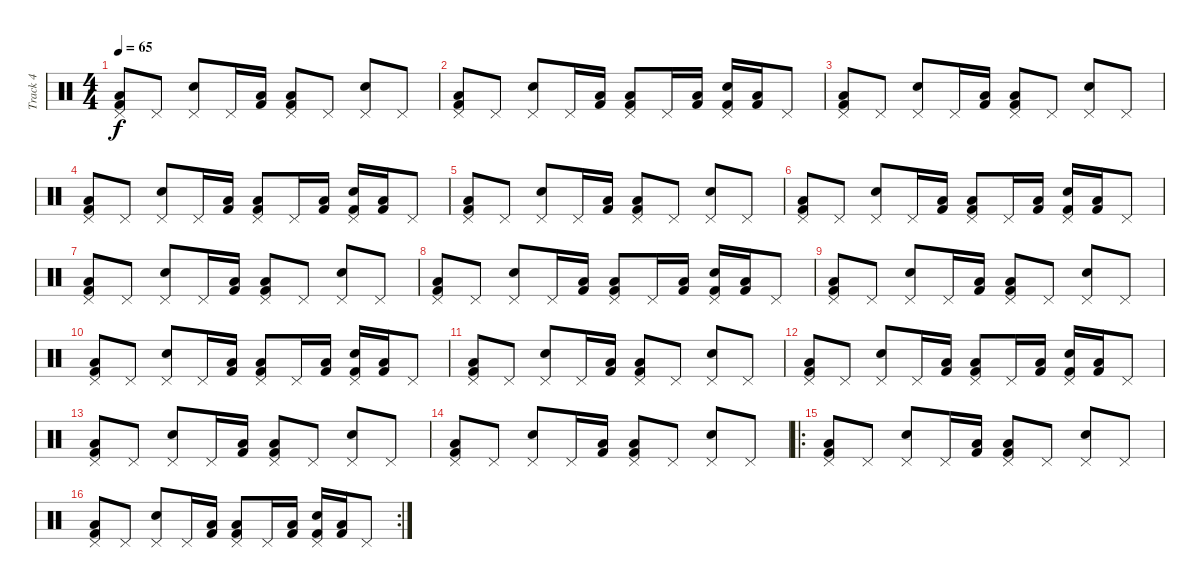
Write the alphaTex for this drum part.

\track ("Track 4" "Track 4") {instrument percussion}
\staff {score}
\articulation defaults
\ts (4 4)
\tempo 65
\clef neutral
\ks c
("Pedal Hi-Hat (hit)" "Low Floor Tom (hit)" "Kick (hit) 2").8{dy f} "Pedal Hi-Hat (hit)".8 ("Pedal Hi-Hat (hit)" "Electric Snare (hit)").8 "Pedal Hi-Hat (hit)".16 ("Low Floor Tom (hit)" "Kick (hit) 2").16 ("Pedal Hi-Hat (hit)" "Low Floor Tom (hit)" "Kick (hit) 2").8 "Pedal Hi-Hat (hit)".8 ("Pedal Hi-Hat (hit)" "Electric Snare (hit)").8 "Pedal Hi-Hat (hit)".8 |
("Pedal Hi-Hat (hit)" "Low Floor Tom (hit)" "Kick (hit) 2").8 "Pedal Hi-Hat (hit)".8 ("Pedal Hi-Hat (hit)" "Electric Snare (hit)").8 "Pedal Hi-Hat (hit)".16 ("Low Floor Tom (hit)" "Kick (hit) 2").16 ("Pedal Hi-Hat (hit)" "Low Floor Tom (hit)" "Kick (hit) 2").8 "Pedal Hi-Hat (hit)".16 ("Low Floor Tom (hit)" "Kick (hit) 2").16 ("Pedal Hi-Hat (hit)" "Electric Snare (hit)" "Kick (hit) 2").16 ("Low Floor Tom (hit)" "Kick (hit) 2").16 "Pedal Hi-Hat (hit)".8 |
("Pedal Hi-Hat (hit)" "Low Floor Tom (hit)" "Kick (hit) 2").8 "Pedal Hi-Hat (hit)".8 ("Pedal Hi-Hat (hit)" "Electric Snare (hit)").8 "Pedal Hi-Hat (hit)".16 ("Low Floor Tom (hit)" "Kick (hit) 2").16 ("Pedal Hi-Hat (hit)" "Low Floor Tom (hit)" "Kick (hit) 2").8 "Pedal Hi-Hat (hit)".8 ("Pedal Hi-Hat (hit)" "Electric Snare (hit)").8 "Pedal Hi-Hat (hit)".8 |
("Pedal Hi-Hat (hit)" "Low Floor Tom (hit)" "Kick (hit) 2").8 "Pedal Hi-Hat (hit)".8 ("Pedal Hi-Hat (hit)" "Electric Snare (hit)").8 "Pedal Hi-Hat (hit)".16 ("Low Floor Tom (hit)" "Kick (hit) 2").16 ("Pedal Hi-Hat (hit)" "Low Floor Tom (hit)" "Kick (hit) 2").8 "Pedal Hi-Hat (hit)".16 ("Low Floor Tom (hit)" "Kick (hit) 2").16 ("Pedal Hi-Hat (hit)" "Electric Snare (hit)" "Kick (hit) 2").16 ("Low Floor Tom (hit)" "Kick (hit) 2").16 "Pedal Hi-Hat (hit)".8 |
("Pedal Hi-Hat (hit)" "Low Floor Tom (hit)" "Kick (hit) 2").8 "Pedal Hi-Hat (hit)".8 ("Pedal Hi-Hat (hit)" "Electric Snare (hit)").8 "Pedal Hi-Hat (hit)".16 ("Low Floor Tom (hit)" "Kick (hit) 2").16 ("Pedal Hi-Hat (hit)" "Low Floor Tom (hit)" "Kick (hit) 2").8 "Pedal Hi-Hat (hit)".8 ("Pedal Hi-Hat (hit)" "Electric Snare (hit)").8 "Pedal Hi-Hat (hit)".8 |
("Pedal Hi-Hat (hit)" "Low Floor Tom (hit)" "Kick (hit) 2").8 "Pedal Hi-Hat (hit)".8 ("Pedal Hi-Hat (hit)" "Electric Snare (hit)").8 "Pedal Hi-Hat (hit)".16 ("Low Floor Tom (hit)" "Kick (hit) 2").16 ("Pedal Hi-Hat (hit)" "Low Floor Tom (hit)" "Kick (hit) 2").8 "Pedal Hi-Hat (hit)".16 ("Low Floor Tom (hit)" "Kick (hit) 2").16 ("Pedal Hi-Hat (hit)" "Electric Snare (hit)" "Kick (hit) 2").16 ("Low Floor Tom (hit)" "Kick (hit) 2").16 "Pedal Hi-Hat (hit)".8 |
("Pedal Hi-Hat (hit)" "Low Floor Tom (hit)" "Kick (hit) 2").8 "Pedal Hi-Hat (hit)".8 ("Pedal Hi-Hat (hit)" "Electric Snare (hit)").8 "Pedal Hi-Hat (hit)".16 ("Low Floor Tom (hit)" "Kick (hit) 2").16 ("Pedal Hi-Hat (hit)" "Low Floor Tom (hit)" "Kick (hit) 2").8 "Pedal Hi-Hat (hit)".8 ("Pedal Hi-Hat (hit)" "Electric Snare (hit)").8 "Pedal Hi-Hat (hit)".8 |
("Pedal Hi-Hat (hit)" "Low Floor Tom (hit)" "Kick (hit) 2").8 "Pedal Hi-Hat (hit)".8 ("Pedal Hi-Hat (hit)" "Electric Snare (hit)").8 "Pedal Hi-Hat (hit)".16 ("Low Floor Tom (hit)" "Kick (hit) 2").16 ("Pedal Hi-Hat (hit)" "Low Floor Tom (hit)" "Kick (hit) 2").8 "Pedal Hi-Hat (hit)".16 ("Low Floor Tom (hit)" "Kick (hit) 2").16 ("Pedal Hi-Hat (hit)" "Electric Snare (hit)" "Kick (hit) 2").16 ("Low Floor Tom (hit)" "Kick (hit) 2").16 "Pedal Hi-Hat (hit)".8 |
("Pedal Hi-Hat (hit)" "Low Floor Tom (hit)" "Kick (hit) 2").8 "Pedal Hi-Hat (hit)".8 ("Pedal Hi-Hat (hit)" "Electric Snare (hit)").8 "Pedal Hi-Hat (hit)".16 ("Low Floor Tom (hit)" "Kick (hit) 2").16 ("Pedal Hi-Hat (hit)" "Low Floor Tom (hit)" "Kick (hit) 2").8 "Pedal Hi-Hat (hit)".8 ("Pedal Hi-Hat (hit)" "Electric Snare (hit)").8 "Pedal Hi-Hat (hit)".8 |
("Pedal Hi-Hat (hit)" "Low Floor Tom (hit)" "Kick (hit) 2").8 "Pedal Hi-Hat (hit)".8 ("Pedal Hi-Hat (hit)" "Electric Snare (hit)").8 "Pedal Hi-Hat (hit)".16 ("Low Floor Tom (hit)" "Kick (hit) 2").16 ("Pedal Hi-Hat (hit)" "Low Floor Tom (hit)" "Kick (hit) 2").8 "Pedal Hi-Hat (hit)".16 ("Low Floor Tom (hit)" "Kick (hit) 2").16 ("Pedal Hi-Hat (hit)" "Electric Snare (hit)" "Kick (hit) 2").16 ("Low Floor Tom (hit)" "Kick (hit) 2").16 "Pedal Hi-Hat (hit)".8 |
("Pedal Hi-Hat (hit)" "Low Floor Tom (hit)" "Kick (hit) 2").8 "Pedal Hi-Hat (hit)".8 ("Pedal Hi-Hat (hit)" "Electric Snare (hit)").8 "Pedal Hi-Hat (hit)".16 ("Low Floor Tom (hit)" "Kick (hit) 2").16 ("Pedal Hi-Hat (hit)" "Low Floor Tom (hit)" "Kick (hit) 2").8 "Pedal Hi-Hat (hit)".8 ("Pedal Hi-Hat (hit)" "Electric Snare (hit)").8 "Pedal Hi-Hat (hit)".8 |
("Pedal Hi-Hat (hit)" "Low Floor Tom (hit)" "Kick (hit) 2").8 "Pedal Hi-Hat (hit)".8 ("Pedal Hi-Hat (hit)" "Electric Snare (hit)").8 "Pedal Hi-Hat (hit)".16 ("Low Floor Tom (hit)" "Kick (hit) 2").16 ("Pedal Hi-Hat (hit)" "Low Floor Tom (hit)" "Kick (hit) 2").8 "Pedal Hi-Hat (hit)".16 ("Low Floor Tom (hit)" "Kick (hit) 2").16 ("Pedal Hi-Hat (hit)" "Electric Snare (hit)" "Kick (hit) 2").16 ("Low Floor Tom (hit)" "Kick (hit) 2").16 "Pedal Hi-Hat (hit)".8 |
("Pedal Hi-Hat (hit)" "Low Floor Tom (hit)" "Kick (hit) 2").8 "Pedal Hi-Hat (hit)".8 ("Pedal Hi-Hat (hit)" "Electric Snare (hit)").8 "Pedal Hi-Hat (hit)".16 ("Low Floor Tom (hit)" "Kick (hit) 2").16 ("Pedal Hi-Hat (hit)" "Low Floor Tom (hit)" "Kick (hit) 2").8 "Pedal Hi-Hat (hit)".8 ("Pedal Hi-Hat (hit)" "Electric Snare (hit)").8 "Pedal Hi-Hat (hit)".8 |
("Pedal Hi-Hat (hit)" "Low Floor Tom (hit)" "Kick (hit) 2").8 "Pedal Hi-Hat (hit)".8 ("Pedal Hi-Hat (hit)" "Electric Snare (hit)").8 "Pedal Hi-Hat (hit)".16 ("Low Floor Tom (hit)" "Kick (hit) 2").16 ("Pedal Hi-Hat (hit)" "Low Floor Tom (hit)" "Kick (hit) 2").8 "Pedal Hi-Hat (hit)".8 ("Pedal Hi-Hat (hit)" "Electric Snare (hit)").8 "Pedal Hi-Hat (hit)".8 |
\ro
("Pedal Hi-Hat (hit)" "Low Floor Tom (hit)" "Kick (hit) 2").8 "Pedal Hi-Hat (hit)".8 ("Pedal Hi-Hat (hit)" "Electric Snare (hit)").8 "Pedal Hi-Hat (hit)".16 ("Low Floor Tom (hit)" "Kick (hit) 2").16 ("Pedal Hi-Hat (hit)" "Low Floor Tom (hit)" "Kick (hit) 2").8 "Pedal Hi-Hat (hit)".8 ("Pedal Hi-Hat (hit)" "Electric Snare (hit)").8 "Pedal Hi-Hat (hit)".8 |
\rc 2
("Pedal Hi-Hat (hit)" "Low Floor Tom (hit)" "Kick (hit) 2").8 "Pedal Hi-Hat (hit)".8 ("Pedal Hi-Hat (hit)" "Electric Snare (hit)").8 "Pedal Hi-Hat (hit)".16 ("Low Floor Tom (hit)" "Kick (hit) 2").16 ("Pedal Hi-Hat (hit)" "Low Floor Tom (hit)" "Kick (hit) 2").8 "Pedal Hi-Hat (hit)".16 ("Low Floor Tom (hit)" "Kick (hit) 2").16 ("Pedal Hi-Hat (hit)" "Electric Snare (hit)" "Kick (hit) 2").16 ("Low Floor Tom (hit)" "Kick (hit) 2").16 "Pedal Hi-Hat (hit)".8
